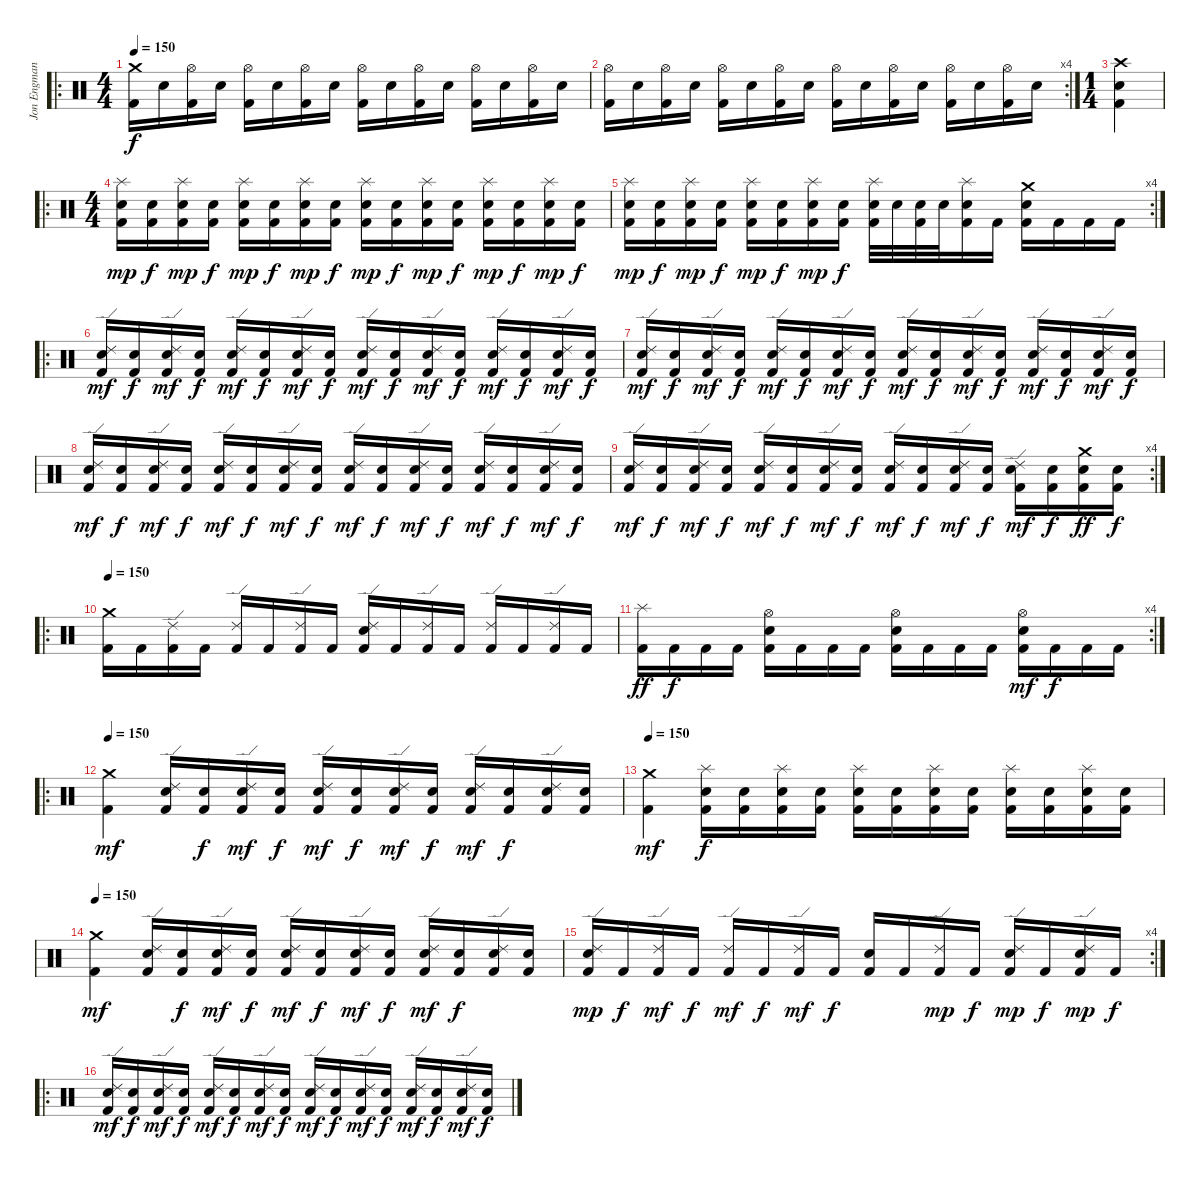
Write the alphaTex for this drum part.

\track ("Jon Engman" "Jon Engman") {instrument percussion}
\staff {score}
\articulation defaults
\ro
\ts (4 4)
\tempo 150
\clef neutral
\ks c
("Crash medium (hit)" "Kick (hit) 2").16{dy f} "Electric Snare (hit)".16 ("Hi-Hat (open)" "Kick (hit) 2").16 "Electric Snare (hit)".16 ("Hi-Hat (open)" "Kick (hit) 2").16 "Electric Snare (hit)".16 ("Hi-Hat (open)" "Kick (hit) 2").16 "Electric Snare (hit)".16 ("Hi-Hat (open)" "Kick (hit) 2").16 "Electric Snare (hit)".16 ("Hi-Hat (open)" "Kick (hit) 2").16 "Electric Snare (hit)".16 ("Hi-Hat (open)" "Kick (hit) 2").16 "Electric Snare (hit)".16 ("Hi-Hat (open)" "Kick (hit) 2").16 "Electric Snare (hit)".16 |
\rc 4
("Hi-Hat (open)" "Kick (hit) 2").16 "Electric Snare (hit)".16 ("Hi-Hat (open)" "Kick (hit) 2").16 "Electric Snare (hit)".16 ("Hi-Hat (open)" "Kick (hit) 2").16 "Electric Snare (hit)".16 ("Hi-Hat (open)" "Kick (hit) 2").16 "Electric Snare (hit)".16 ("Hi-Hat (open)" "Kick (hit) 2").16 "Electric Snare (hit)".16 ("Hi-Hat (open)" "Kick (hit) 2").16 "Electric Snare (hit)".16 ("Hi-Hat (open)" "Kick (hit) 2").16 "Electric Snare (hit)".16 ("Hi-Hat (open)" "Kick (hit) 2").16 "Electric Snare (hit)".16 |
\ts (1 4)
("Crash high (hit)" "Electric Snare (hit)" "Kick (hit) 2").4 |
\ro
\ts (4 4)
("Splash (hit)" "Electric Snare (hit)" "Kick (hit) 2").16{dy mp} ("Electric Snare (hit)" "Kick (hit) 2").16{dy f} ("Splash (hit)" "Electric Snare (hit)" "Kick (hit) 2").16{dy mp} ("Electric Snare (hit)" "Kick (hit) 2").16{dy f} ("Splash (hit)" "Electric Snare (hit)" "Kick (hit) 2").16{dy mp} ("Electric Snare (hit)" "Kick (hit) 2").16{dy f} ("Splash (hit)" "Electric Snare (hit)" "Kick (hit) 2").16{dy mp} ("Electric Snare (hit)" "Kick (hit) 2").16{dy f} ("Splash (hit)" "Electric Snare (hit)" "Kick (hit) 2").16{dy mp} ("Electric Snare (hit)" "Kick (hit) 2").16{dy f} ("Splash (hit)" "Electric Snare (hit)" "Kick (hit) 2").16{dy mp} ("Electric Snare (hit)" "Kick (hit) 2").16{dy f} ("Splash (hit)" "Electric Snare (hit)" "Kick (hit) 2").16{dy mp} ("Electric Snare (hit)" "Kick (hit) 2").16{dy f} ("Splash (hit)" "Electric Snare (hit)" "Kick (hit) 2").16{dy mp} ("Electric Snare (hit)" "Kick (hit) 2").16{dy f} |
\rc 4
("Splash (hit)" "Electric Snare (hit)" "Kick (hit) 2").16{dy mp} ("Electric Snare (hit)" "Kick (hit) 2").16{dy f} ("Splash (hit)" "Electric Snare (hit)" "Kick (hit) 2").16{dy mp} ("Electric Snare (hit)" "Kick (hit) 2").16{dy f} ("Splash (hit)" "Electric Snare (hit)" "Kick (hit) 2").16{dy mp} ("Electric Snare (hit)" "Kick (hit) 2").16{dy f} ("Splash (hit)" "Electric Snare (hit)" "Kick (hit) 2").16{dy mp} ("Electric Snare (hit)" "Kick (hit) 2").16{dy f} ("Splash (hit)" "Electric Snare (hit)" "Kick (hit) 2").32 "Electric Snare (hit)".32 ("Electric Snare (hit)" "Kick (hit) 2").32 "Electric Snare (hit)".32 ("Splash (hit)" "Electric Snare (hit)" "Kick (hit) 2").16 "Kick (hit) 2".16 ("Crash medium (hit)" "Electric Snare (hit)" "Kick (hit) 2").16 "Kick (hit) 2".16 "Kick (hit) 2".16 "Kick (hit) 2".16 |
\ro
("Ride (edge) 2" "Electric Snare (hit)" "Kick (hit) 2").16{dy mf} ("Electric Snare (hit)" "Kick (hit) 2").16{dy f} ("Ride (edge) 2" "Electric Snare (hit)" "Kick (hit) 2").16{dy mf} ("Electric Snare (hit)" "Kick (hit) 2").16{dy f} ("Ride (edge) 2" "Electric Snare (hit)" "Kick (hit) 2").16{dy mf} ("Electric Snare (hit)" "Kick (hit) 2").16{dy f} ("Ride (edge) 2" "Electric Snare (hit)" "Kick (hit) 2").16{dy mf} ("Electric Snare (hit)" "Kick (hit) 2").16{dy f} ("Ride (edge) 2" "Electric Snare (hit)" "Kick (hit) 2").16{dy mf} ("Electric Snare (hit)" "Kick (hit) 2").16{dy f} ("Ride (edge) 2" "Electric Snare (hit)" "Kick (hit) 2").16{dy mf} ("Electric Snare (hit)" "Kick (hit) 2").16{dy f} ("Ride (edge) 2" "Electric Snare (hit)" "Kick (hit) 2").16{dy mf} ("Electric Snare (hit)" "Kick (hit) 2").16{dy f} ("Ride (edge) 2" "Electric Snare (hit)" "Kick (hit) 2").16{dy mf} ("Electric Snare (hit)" "Kick (hit) 2").16{dy f} |
("Ride (edge) 2" "Electric Snare (hit)" "Kick (hit) 2").16{dy mf} ("Electric Snare (hit)" "Kick (hit) 2").16{dy f} ("Ride (edge) 2" "Electric Snare (hit)" "Kick (hit) 2").16{dy mf} ("Electric Snare (hit)" "Kick (hit) 2").16{dy f} ("Ride (edge) 2" "Electric Snare (hit)" "Kick (hit) 2").16{dy mf} ("Electric Snare (hit)" "Kick (hit) 2").16{dy f} ("Ride (edge) 2" "Electric Snare (hit)" "Kick (hit) 2").16{dy mf} ("Electric Snare (hit)" "Kick (hit) 2").16{dy f} ("Ride (edge) 2" "Electric Snare (hit)" "Kick (hit) 2").16{dy mf} ("Electric Snare (hit)" "Kick (hit) 2").16{dy f} ("Ride (edge) 2" "Electric Snare (hit)" "Kick (hit) 2").16{dy mf} ("Electric Snare (hit)" "Kick (hit) 2").16{dy f} ("Ride (edge) 2" "Electric Snare (hit)" "Kick (hit) 2").16{dy mf} ("Electric Snare (hit)" "Kick (hit) 2").16{dy f} ("Ride (edge) 2" "Electric Snare (hit)" "Kick (hit) 2").16{dy mf} ("Electric Snare (hit)" "Kick (hit) 2").16{dy f} |
("Ride (edge) 2" "Electric Snare (hit)" "Kick (hit) 2").16{dy mf} ("Electric Snare (hit)" "Kick (hit) 2").16{dy f} ("Ride (edge) 2" "Electric Snare (hit)" "Kick (hit) 2").16{dy mf} ("Electric Snare (hit)" "Kick (hit) 2").16{dy f} ("Ride (edge) 2" "Electric Snare (hit)" "Kick (hit) 2").16{dy mf} ("Electric Snare (hit)" "Kick (hit) 2").16{dy f} ("Ride (edge) 2" "Electric Snare (hit)" "Kick (hit) 2").16{dy mf} ("Electric Snare (hit)" "Kick (hit) 2").16{dy f} ("Ride (edge) 2" "Electric Snare (hit)" "Kick (hit) 2").16{dy mf} ("Electric Snare (hit)" "Kick (hit) 2").16{dy f} ("Ride (edge) 2" "Electric Snare (hit)" "Kick (hit) 2").16{dy mf} ("Electric Snare (hit)" "Kick (hit) 2").16{dy f} ("Ride (edge) 2" "Electric Snare (hit)" "Kick (hit) 2").16{dy mf} ("Electric Snare (hit)" "Kick (hit) 2").16{dy f} ("Ride (edge) 2" "Electric Snare (hit)" "Kick (hit) 2").16{dy mf} ("Electric Snare (hit)" "Kick (hit) 2").16{dy f} |
\rc 4
("Ride (edge) 2" "Electric Snare (hit)" "Kick (hit) 2").16{dy mf} ("Electric Snare (hit)" "Kick (hit) 2").16{dy f} ("Ride (edge) 2" "Electric Snare (hit)" "Kick (hit) 2").16{dy mf} ("Electric Snare (hit)" "Kick (hit) 2").16{dy f} ("Ride (edge) 2" "Electric Snare (hit)" "Kick (hit) 2").16{dy mf} ("Electric Snare (hit)" "Kick (hit) 2").16{dy f} ("Ride (edge) 2" "Electric Snare (hit)" "Kick (hit) 2").16{dy mf} ("Electric Snare (hit)" "Kick (hit) 2").16{dy f} ("Ride (edge) 2" "Electric Snare (hit)" "Kick (hit) 2").16{dy mf} ("Electric Snare (hit)" "Kick (hit) 2").16{dy f} ("Ride (edge) 2" "Electric Snare (hit)" "Kick (hit) 2").16{dy mf} ("Electric Snare (hit)" "Kick (hit) 2").16{dy f} ("Ride (edge) 2" "Electric Snare (hit)" "Kick (hit) 2").16{dy mf} ("Electric Snare (hit)" "Kick (hit) 2").16{dy f} ("Crash medium (hit)" "Electric Snare (hit)" "Kick (hit) 2").16{dy ff} ("Electric Snare (hit)" "Kick (hit) 2").16{dy f} |
\ro
\tempo 150
("Crash medium (hit)" "Kick (hit) 2").16 "Kick (hit) 2".16 ("Ride (edge) 2" "Kick (hit) 2").16 "Kick (hit) 2".16 ("Ride (edge) 2" "Kick (hit) 2").16 "Kick (hit) 2".16 ("Ride (edge) 2" "Kick (hit) 2").16 "Kick (hit) 2".16 ("Ride (edge) 2" "Electric Snare (hit)" "Kick (hit) 2").16 "Kick (hit) 2".16 ("Ride (edge) 2" "Kick (hit) 2").16 "Kick (hit) 2".16 ("Ride (edge) 2" "Kick (hit) 2").16 "Kick (hit) 2".16 ("Ride (edge) 2" "Kick (hit) 2").16 "Kick (hit) 2".16 |
\rc 4
("Splash (hit)" "Kick (hit) 2").16{dy ff} "Kick (hit) 2".16{dy f} "Kick (hit) 2".16 "Kick (hit) 2".16 ("Hi-Hat (open)" "Electric Snare (hit)" "Kick (hit) 2").16 "Kick (hit) 2".16 "Kick (hit) 2".16 "Kick (hit) 2".16 ("Hi-Hat (open)" "Electric Snare (hit)" "Kick (hit) 2").16 "Kick (hit) 2".16 "Kick (hit) 2".16 "Kick (hit) 2".16 ("Hi-Hat (open)" "Electric Snare (hit)" "Kick (hit) 2").16{dy mf} "Kick (hit) 2".16{dy f} "Kick (hit) 2".16 "Kick (hit) 2".16 |
\ro
\tempo 150
("Crash medium (hit)" "Kick (hit) 2").4{dy mf} ("Ride (edge) 2" "Electric Snare (hit)" "Kick (hit) 2").16 ("Electric Snare (hit)" "Kick (hit) 2").16{dy f} ("Ride (edge) 2" "Electric Snare (hit)" "Kick (hit) 2").16{dy mf} ("Electric Snare (hit)" "Kick (hit) 2").16{dy f} ("Ride (edge) 2" "Electric Snare (hit)" "Kick (hit) 2").16{dy mf} ("Electric Snare (hit)" "Kick (hit) 2").16{dy f} ("Ride (edge) 2" "Electric Snare (hit)" "Kick (hit) 2").16{dy mf} ("Electric Snare (hit)" "Kick (hit) 2").16{dy f} ("Ride (edge) 2" "Electric Snare (hit)" "Kick (hit) 2").16{dy mf} ("Electric Snare (hit)" "Kick (hit) 2").16{dy f} ("Ride (edge) 2" "Electric Snare (hit)" "Kick (hit) 2").16 ("Electric Snare (hit)" "Kick (hit) 2").16 |
\tempo 150
("Crash medium (hit)" "Kick (hit) 2").4{dy mf} ("Splash (hit)" "Electric Snare (hit)" "Kick (hit) 2").16{dy f} ("Electric Snare (hit)" "Kick (hit) 2").16 ("Splash (hit)" "Electric Snare (hit)" "Kick (hit) 2").16 ("Electric Snare (hit)" "Kick (hit) 2").16 ("Splash (hit)" "Electric Snare (hit)" "Kick (hit) 2").16 ("Electric Snare (hit)" "Kick (hit) 2").16 ("Splash (hit)" "Electric Snare (hit)" "Kick (hit) 2").16 ("Electric Snare (hit)" "Kick (hit) 2").16 ("Splash (hit)" "Electric Snare (hit)" "Kick (hit) 2").16 ("Electric Snare (hit)" "Kick (hit) 2").16 ("Splash (hit)" "Electric Snare (hit)" "Kick (hit) 2").16 ("Electric Snare (hit)" "Kick (hit) 2").16 |
\tempo 150
("Crash medium (hit)" "Kick (hit) 2").4{dy mf} ("Ride (edge) 2" "Electric Snare (hit)" "Kick (hit) 2").16 ("Electric Snare (hit)" "Kick (hit) 2").16{dy f} ("Ride (edge) 2" "Electric Snare (hit)" "Kick (hit) 2").16{dy mf} ("Electric Snare (hit)" "Kick (hit) 2").16{dy f} ("Ride (edge) 2" "Electric Snare (hit)" "Kick (hit) 2").16{dy mf} ("Electric Snare (hit)" "Kick (hit) 2").16{dy f} ("Ride (edge) 2" "Electric Snare (hit)" "Kick (hit) 2").16{dy mf} ("Electric Snare (hit)" "Kick (hit) 2").16{dy f} ("Ride (edge) 2" "Electric Snare (hit)" "Kick (hit) 2").16{dy mf} ("Electric Snare (hit)" "Kick (hit) 2").16{dy f} ("Ride (edge) 2" "Electric Snare (hit)" "Kick (hit) 2").16 ("Electric Snare (hit)" "Kick (hit) 2").16 |
\rc 4
("Ride (edge) 2" "Electric Snare (hit)" "Kick (hit) 2").16{dy mp} "Kick (hit) 2".16{dy f} ("Ride (edge) 2" "Kick (hit) 2").16{dy mf} "Kick (hit) 2".16{dy f} ("Ride (edge) 2" "Kick (hit) 2").16{dy mf} "Kick (hit) 2".16{dy f} ("Ride (edge) 2" "Kick (hit) 2").16{dy mf} "Kick (hit) 2".16{dy f} ("Electric Snare (hit)" "Kick (hit) 2").16 "Kick (hit) 2".16 ("Ride (edge) 2" "Kick (hit) 2").16{dy mp} "Kick (hit) 2".16{dy f} ("Ride (edge) 2" "Electric Snare (hit)" "Kick (hit) 2").16{dy mp} "Kick (hit) 2".16{dy f} ("Ride (edge) 2" "Electric Snare (hit)" "Kick (hit) 2").16{dy mp} "Kick (hit) 2".16{dy f} |
\ro
("Ride (edge) 2" "Electric Snare (hit)" "Kick (hit) 2").16{dy mf} ("Electric Snare (hit)" "Kick (hit) 2").16{dy f} ("Ride (edge) 2" "Electric Snare (hit)" "Kick (hit) 2").16{dy mf} ("Electric Snare (hit)" "Kick (hit) 2").16{dy f} ("Ride (edge) 2" "Electric Snare (hit)" "Kick (hit) 2").16{dy mf} ("Electric Snare (hit)" "Kick (hit) 2").16{dy f} ("Ride (edge) 2" "Electric Snare (hit)" "Kick (hit) 2").16{dy mf} ("Electric Snare (hit)" "Kick (hit) 2").16{dy f} ("Ride (edge) 2" "Electric Snare (hit)" "Kick (hit) 2").16{dy mf} ("Electric Snare (hit)" "Kick (hit) 2").16{dy f} ("Ride (edge) 2" "Electric Snare (hit)" "Kick (hit) 2").16{dy mf} ("Electric Snare (hit)" "Kick (hit) 2").16{dy f} ("Ride (edge) 2" "Electric Snare (hit)" "Kick (hit) 2").16{dy mf} ("Electric Snare (hit)" "Kick (hit) 2").16{dy f} ("Ride (edge) 2" "Electric Snare (hit)" "Kick (hit) 2").16{dy mf} ("Electric Snare (hit)" "Kick (hit) 2").16{dy f}
